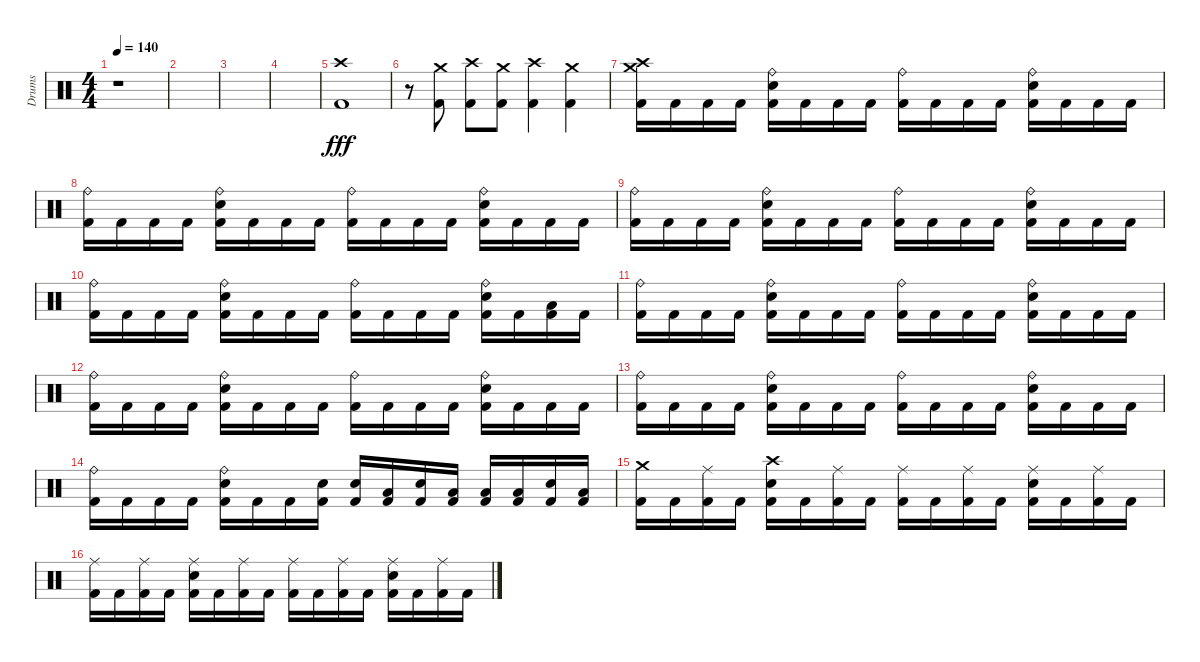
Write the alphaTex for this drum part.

\track ("Drums" "Drums") {instrument percussion}
\staff {score}
\articulation defaults
\ts (4 4)
\tempo 140
\clef neutral
\ks c
r.1{dy fff} |
|
|
|
("Crash high (hit)" "Kick (hit) 2").1 |
r.8 ("Crash medium (hit)" "Kick (hit) 2").8 ("Crash high (hit)" "Kick (hit) 2").8 ("Crash medium (hit)" "Kick (hit) 2").8 ("Crash high (hit)" "Kick (hit) 2").4 ("Crash medium (hit)" "Kick (hit) 2").4 |
("Kick (hit) 2" "Crash high (hit)" "Crash medium (hit)").16 "Kick (hit) 2".16 "Kick (hit) 2".16 "Kick (hit) 2".16 ("Kick (hit) 2" "Electric Snare (hit)" "Ride (bell)").16 "Kick (hit) 2".16 "Kick (hit) 2".16 "Kick (hit) 2".16 ("Kick (hit) 2" "Ride (bell)").16 "Kick (hit) 2".16 "Kick (hit) 2".16 "Kick (hit) 2".16 ("Kick (hit) 2" "Electric Snare (hit)" "Ride (bell)").16 "Kick (hit) 2".16 "Kick (hit) 2".16 "Kick (hit) 2".16 |
("Kick (hit) 2" "Ride (bell)").16 "Kick (hit) 2".16 "Kick (hit) 2".16 "Kick (hit) 2".16 ("Kick (hit) 2" "Electric Snare (hit)" "Ride (bell)").16 "Kick (hit) 2".16 "Kick (hit) 2".16 "Kick (hit) 2".16 ("Kick (hit) 2" "Ride (bell)").16 "Kick (hit) 2".16 "Kick (hit) 2".16 "Kick (hit) 2".16 ("Kick (hit) 2" "Electric Snare (hit)" "Ride (bell)").16 "Kick (hit) 2".16 "Kick (hit) 2".16 "Kick (hit) 2".16 |
("Kick (hit) 2" "Ride (bell)").16 "Kick (hit) 2".16 "Kick (hit) 2".16 "Kick (hit) 2".16 ("Kick (hit) 2" "Electric Snare (hit)" "Ride (bell)").16 "Kick (hit) 2".16 "Kick (hit) 2".16 "Kick (hit) 2".16 ("Kick (hit) 2" "Ride (bell)").16 "Kick (hit) 2".16 "Kick (hit) 2".16 "Kick (hit) 2".16 ("Kick (hit) 2" "Electric Snare (hit)" "Ride (bell)").16 "Kick (hit) 2".16 "Kick (hit) 2".16 "Kick (hit) 2".16 |
("Kick (hit) 2" "Ride (bell)").16 "Kick (hit) 2".16 "Kick (hit) 2".16 "Kick (hit) 2".16 ("Kick (hit) 2" "Electric Snare (hit)" "Ride (bell)").16 "Kick (hit) 2".16 "Kick (hit) 2".16 "Kick (hit) 2".16 ("Kick (hit) 2" "Ride (bell)").16 "Kick (hit) 2".16 "Kick (hit) 2".16 "Kick (hit) 2".16 ("Kick (hit) 2" "Electric Snare (hit)" "Ride (bell)").16 "Kick (hit) 2".16 ("Kick (hit) 2" "Low Floor Tom (hit)").16 "Kick (hit) 2".16 |
("Kick (hit) 2" "Ride (bell)").16 "Kick (hit) 2".16 "Kick (hit) 2".16 "Kick (hit) 2".16 ("Kick (hit) 2" "Electric Snare (hit)" "Ride (bell)").16 "Kick (hit) 2".16 "Kick (hit) 2".16 "Kick (hit) 2".16 ("Kick (hit) 2" "Ride (bell)").16 "Kick (hit) 2".16 "Kick (hit) 2".16 "Kick (hit) 2".16 ("Kick (hit) 2" "Electric Snare (hit)" "Ride (bell)").16 "Kick (hit) 2".16 "Kick (hit) 2".16 "Kick (hit) 2".16 |
("Kick (hit) 2" "Ride (bell)").16 "Kick (hit) 2".16 "Kick (hit) 2".16 "Kick (hit) 2".16 ("Kick (hit) 2" "Electric Snare (hit)" "Ride (bell)").16 "Kick (hit) 2".16 "Kick (hit) 2".16 "Kick (hit) 2".16 ("Kick (hit) 2" "Ride (bell)").16 "Kick (hit) 2".16 "Kick (hit) 2".16 "Kick (hit) 2".16 ("Kick (hit) 2" "Electric Snare (hit)" "Ride (bell)").16 "Kick (hit) 2".16 "Kick (hit) 2".16 "Kick (hit) 2".16 |
("Kick (hit) 2" "Ride (bell)").16 "Kick (hit) 2".16 "Kick (hit) 2".16 "Kick (hit) 2".16 ("Kick (hit) 2" "Electric Snare (hit)" "Ride (bell)").16 "Kick (hit) 2".16 "Kick (hit) 2".16 "Kick (hit) 2".16 ("Kick (hit) 2" "Ride (bell)").16 "Kick (hit) 2".16 "Kick (hit) 2".16 "Kick (hit) 2".16 ("Kick (hit) 2" "Electric Snare (hit)" "Ride (bell)").16 "Kick (hit) 2".16 "Kick (hit) 2".16 "Kick (hit) 2".16 |
("Kick (hit) 2" "Ride (bell)").16 "Kick (hit) 2".16 "Kick (hit) 2".16 "Kick (hit) 2".16 ("Kick (hit) 2" "Electric Snare (hit)" "Ride (bell)").16 "Kick (hit) 2".16 "Kick (hit) 2".16 ("Kick (hit) 2" "Electric Snare (hit)").16 ("Kick (hit) 2" "Electric Snare (hit)").16 ("Kick (hit) 2" "Low Floor Tom (hit)").16 ("Kick (hit) 2" "Electric Snare (hit)").16 ("Kick (hit) 2" "Low Floor Tom (hit)").16 ("Kick (hit) 2" "Low Floor Tom (hit)").16 ("Kick (hit) 2" "Low Floor Tom (hit)").16 ("Kick (hit) 2" "Electric Snare (hit)").16 ("Kick (hit) 2" "Low Floor Tom (hit)").16 |
("Kick (hit) 2" "Crash medium (hit)").16 "Kick (hit) 2".16 ("Kick (hit) 2" "Ride (middle)").16 "Kick (hit) 2".16 ("Kick (hit) 2" "Electric Snare (hit)" "Crash high (hit)").16 "Kick (hit) 2".16 ("Kick (hit) 2" "Ride (middle)").16 "Kick (hit) 2".16 ("Kick (hit) 2" "Ride (middle)").16 "Kick (hit) 2".16 ("Kick (hit) 2" "Ride (middle)").16 "Kick (hit) 2".16 ("Kick (hit) 2" "Electric Snare (hit)" "Ride (middle)").16 "Kick (hit) 2".16 ("Kick (hit) 2" "Ride (middle)").16 "Kick (hit) 2".16 |
("Kick (hit) 2" "Ride (middle)").16 "Kick (hit) 2".16 ("Kick (hit) 2" "Ride (middle)").16 "Kick (hit) 2".16 ("Kick (hit) 2" "Electric Snare (hit)" "Ride (middle)").16 "Kick (hit) 2".16 ("Kick (hit) 2" "Ride (middle)").16 "Kick (hit) 2".16 ("Kick (hit) 2" "Ride (middle)").16 "Kick (hit) 2".16 ("Kick (hit) 2" "Ride (middle)").16 "Kick (hit) 2".16 ("Kick (hit) 2" "Electric Snare (hit)" "Ride (middle)").16 "Kick (hit) 2".16 ("Kick (hit) 2" "Ride (middle)").16 "Kick (hit) 2".16
